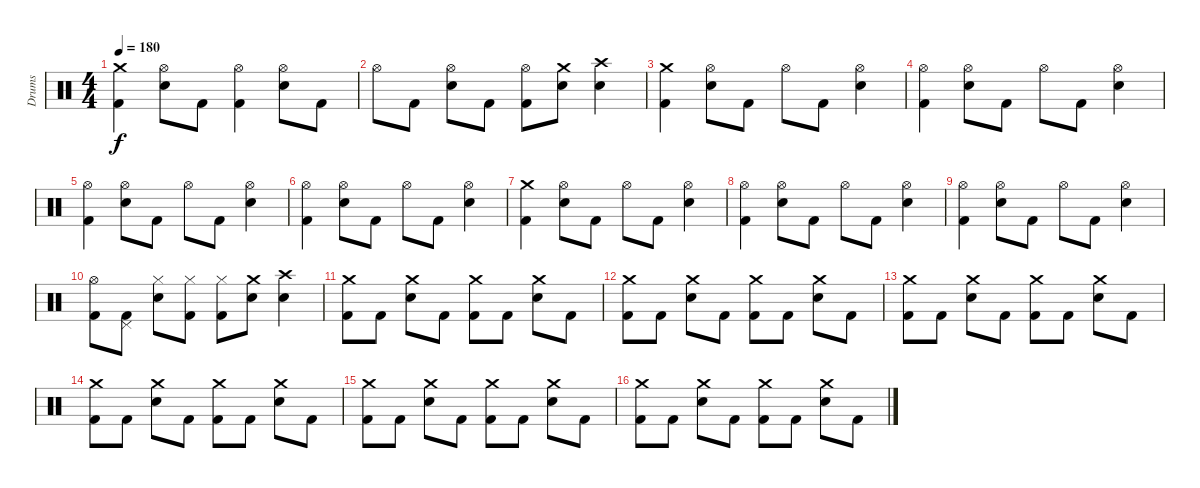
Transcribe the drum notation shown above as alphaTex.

\track ("Drums" "Drums") {instrument percussion}
\staff {score}
\articulation defaults
\ts (4 4)
\tempo 180
\clef neutral
\ks c
("Crash medium (hit)" "Kick (hit) 2").4{dy f} ("Hi-Hat (open)" "Electric Snare (hit)").8 "Kick (hit) 2".8 ("Hi-Hat (open)" "Kick (hit) 2").4 ("Hi-Hat (open)" "Electric Snare (hit)").8 "Kick (hit) 2".8 |
"Hi-Hat (open)".8 "Kick (hit) 2".8 ("Hi-Hat (open)" "Electric Snare (hit)").8 "Kick (hit) 2".8 ("Hi-Hat (open)" "Kick (hit) 2").8 ("Crash medium (hit)" "Electric Snare (hit)").8 ("Crash high (hit)" "Electric Snare (hit)").4 |
("Crash medium (hit)" "Kick (hit) 2").4 ("Hi-Hat (open)" "Electric Snare (hit)").8 "Kick (hit) 2".8 "Hi-Hat (open)".8 "Kick (hit) 2".8 ("Hi-Hat (open)" "Electric Snare (hit)").4 |
("Hi-Hat (open)" "Kick (hit) 2").4 ("Hi-Hat (open)" "Electric Snare (hit)").8 "Kick (hit) 2".8 "Hi-Hat (open)".8 "Kick (hit) 2".8 ("Hi-Hat (open)" "Electric Snare (hit)").4 |
("Hi-Hat (open)" "Kick (hit) 2").4 ("Hi-Hat (open)" "Electric Snare (hit)").8 "Kick (hit) 2".8 "Hi-Hat (open)".8 "Kick (hit) 2".8 ("Hi-Hat (open)" "Electric Snare (hit)").4 |
("Hi-Hat (open)" "Kick (hit) 2").4 ("Hi-Hat (open)" "Electric Snare (hit)").8 "Kick (hit) 2".8 "Hi-Hat (open)".8 "Kick (hit) 2".8 ("Hi-Hat (open)" "Electric Snare (hit)").4 |
("Crash medium (hit)" "Kick (hit) 2").4 ("Hi-Hat (open)" "Electric Snare (hit)").8 "Kick (hit) 2".8 "Hi-Hat (open)".8 "Kick (hit) 2".8 ("Hi-Hat (open)" "Electric Snare (hit)").4 |
("Hi-Hat (open)" "Kick (hit) 2").4 ("Hi-Hat (open)" "Electric Snare (hit)").8 "Kick (hit) 2".8 "Hi-Hat (open)".8 "Kick (hit) 2".8 ("Hi-Hat (open)" "Electric Snare (hit)").4 |
("Hi-Hat (open)" "Kick (hit) 2").4 ("Hi-Hat (open)" "Electric Snare (hit)").8 "Kick (hit) 2".8 "Hi-Hat (open)".8 "Kick (hit) 2".8 ("Hi-Hat (open)" "Electric Snare (hit)").4 |
("Hi-Hat (open)" "Kick (hit) 2").8 ("Pedal Hi-Hat (hit)" "Kick (hit) 2").8 ("Hi-Hat (closed)" "Electric Snare (hit)").8 ("Hi-Hat (closed)" "Kick (hit) 2").8 ("Hi-Hat (closed)" "Kick (hit) 2").8 ("Crash medium (hit)" "Electric Snare (hit)").8 ("Crash high (hit)" "Electric Snare (hit)").4 |
("Crash medium (hit)" "Kick (hit) 2").8 "Kick (hit) 2".8 ("Crash medium (hit)" "Electric Snare (hit)").8 "Kick (hit) 2".8 ("Crash medium (hit)" "Kick (hit) 2").8 "Kick (hit) 2".8 ("Crash medium (hit)" "Electric Snare (hit)").8 "Kick (hit) 2".8 |
("Crash medium (hit)" "Kick (hit) 2").8 "Kick (hit) 2".8 ("Crash medium (hit)" "Electric Snare (hit)").8 "Kick (hit) 2".8 ("Crash medium (hit)" "Kick (hit) 2").8 "Kick (hit) 2".8 ("Crash medium (hit)" "Electric Snare (hit)").8 "Kick (hit) 2".8 |
("Crash medium (hit)" "Kick (hit) 2").8 "Kick (hit) 2".8 ("Crash medium (hit)" "Electric Snare (hit)").8 "Kick (hit) 2".8 ("Crash medium (hit)" "Kick (hit) 2").8 "Kick (hit) 2".8 ("Crash medium (hit)" "Electric Snare (hit)").8 "Kick (hit) 2".8 |
("Crash medium (hit)" "Kick (hit) 2").8 "Kick (hit) 2".8 ("Crash medium (hit)" "Electric Snare (hit)").8 "Kick (hit) 2".8 ("Crash medium (hit)" "Kick (hit) 2").8 "Kick (hit) 2".8 ("Crash medium (hit)" "Electric Snare (hit)").8 "Kick (hit) 2".8 |
("Crash medium (hit)" "Kick (hit) 2").8 "Kick (hit) 2".8 ("Crash medium (hit)" "Electric Snare (hit)").8 "Kick (hit) 2".8 ("Crash medium (hit)" "Kick (hit) 2").8 "Kick (hit) 2".8 ("Crash medium (hit)" "Electric Snare (hit)").8 "Kick (hit) 2".8 |
("Crash medium (hit)" "Kick (hit) 2").8 "Kick (hit) 2".8 ("Crash medium (hit)" "Electric Snare (hit)").8 "Kick (hit) 2".8 ("Crash medium (hit)" "Kick (hit) 2").8 "Kick (hit) 2".8 ("Crash medium (hit)" "Electric Snare (hit)").8 "Kick (hit) 2".8
